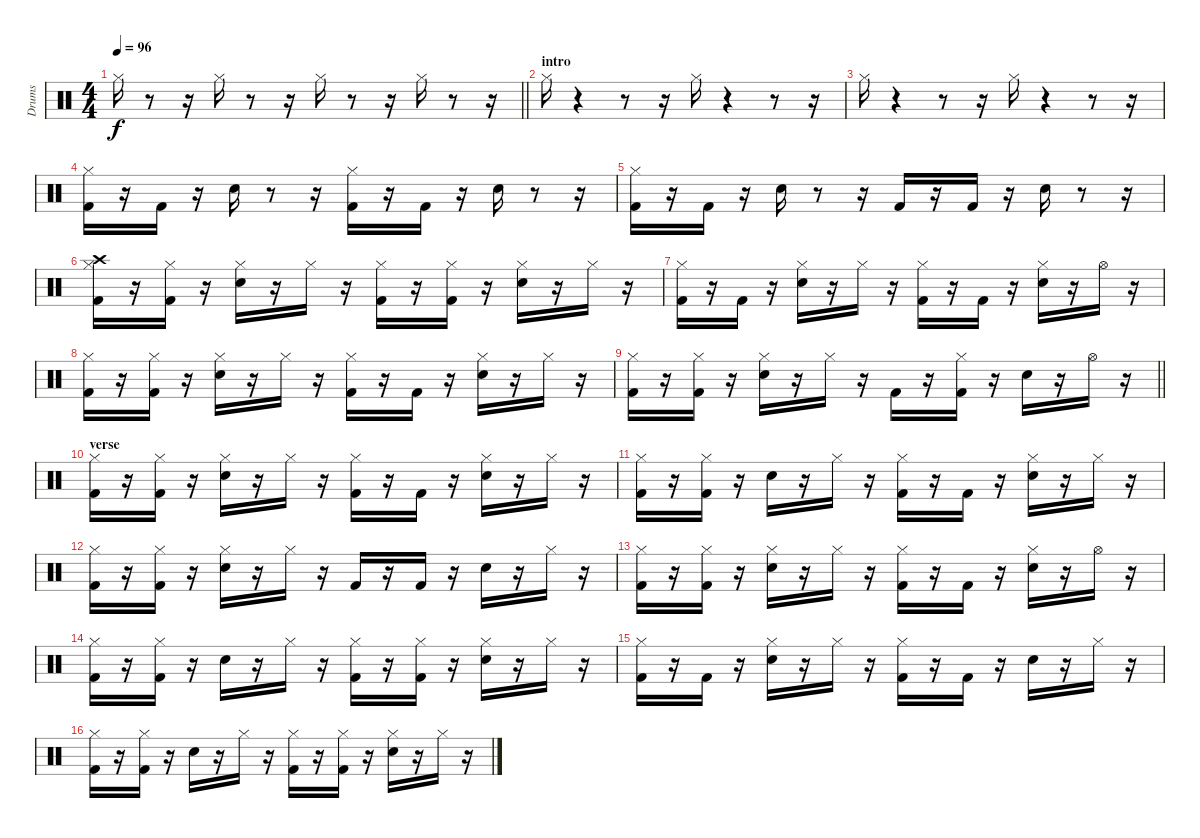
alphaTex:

\track ("Drums" "Drums") {instrument percussion}
\staff {score}
\articulation defaults
\ts (4 4)
\tempo 96
\clef neutral
\barLineRight lightlight
\ks c "Hi-Hat (closed)".16{dy f}
r.8 r.16 "Hi-Hat (closed)".16 r.8 r.16 "Hi-Hat (closed)".16 r.8 r.16 "Hi-Hat (closed)".16 r.8 r.16 |
\section ("" "intro")
"Hi-Hat (closed)".16 r.4 r.8 r.16 "Hi-Hat (closed)".16 r.4 r.8 r.16 |
"Hi-Hat (closed)".16 r.4 r.8 r.16 "Hi-Hat (closed)".16 r.4 r.8 r.16 |
("Kick (hit) 2" "Hi-Hat (closed)").16 r.16 "Kick (hit) 2".16 r.16 "Snare (hit) 2".16 r.8 r.16 ("Kick (hit) 2" "Hi-Hat (closed)").16 r.16 "Kick (hit) 2".16 r.16 "Snare (hit) 2".16 r.8 r.16 |
("Kick (hit) 2" "Hi-Hat (closed)").16 r.16 "Kick (hit) 2".16 r.16 "Snare (hit) 2".16 r.8 r.16 "Kick (hit) 2".16 r.16 "Kick (hit) 2".16 r.16 "Snare (hit) 2".16 r.8 r.16 |
("Kick (hit) 2" "Hi-Hat (closed)" "Crash high (hit)").16 r.16 ("Kick (hit) 2" "Hi-Hat (closed)").16 r.16 ("Snare (hit) 2" "Hi-Hat (closed)").16 r.16 "Hi-Hat (closed)".16 r.16 ("Kick (hit) 2" "Hi-Hat (closed)").16 r.16 ("Kick (hit) 2" "Hi-Hat (closed)").16 r.16 ("Snare (hit) 2" "Hi-Hat (closed)").16 r.16 "Hi-Hat (closed)".16 r.16 |
("Kick (hit) 2" "Hi-Hat (closed)").16 r.16 "Kick (hit) 2".16 r.16 ("Snare (hit) 2" "Hi-Hat (closed)").16 r.16 "Hi-Hat (closed)".16 r.16 ("Kick (hit) 2" "Hi-Hat (closed)").16 r.16 "Kick (hit) 2".16 r.16 ("Snare (hit) 2" "Hi-Hat (closed)").16 r.16 "Hi-Hat (open)".16 r.16 |
("Kick (hit) 2" "Hi-Hat (closed)").16 r.16 ("Kick (hit) 2" "Hi-Hat (closed)").16 r.16 ("Snare (hit) 2" "Hi-Hat (closed)").16 r.16 "Hi-Hat (closed)".16 r.16 ("Kick (hit) 2" "Hi-Hat (closed)").16 r.16 "Kick (hit) 2".16 r.16 ("Snare (hit) 2" "Hi-Hat (closed)").16 r.16 "Hi-Hat (closed)".16 r.16 |
\barLineRight lightlight
("Kick (hit) 2" "Hi-Hat (closed)").16 r.16 ("Kick (hit) 2" "Hi-Hat (closed)").16 r.16 ("Snare (hit) 2" "Hi-Hat (closed)").16 r.16 "Hi-Hat (closed)".16 r.16 "Kick (hit) 2".16 r.16 ("Kick (hit) 2" "Hi-Hat (closed)").16 r.16 "Snare (hit) 2".16 r.16 "Hi-Hat (open)".16 r.16 |
\section ("" "verse")
("Kick (hit) 2" "Hi-Hat (closed)").16 r.16 ("Kick (hit) 2" "Hi-Hat (closed)").16 r.16 ("Snare (hit) 2" "Hi-Hat (closed)").16 r.16 "Hi-Hat (closed)".16 r.16 ("Kick (hit) 2" "Hi-Hat (closed)").16 r.16 "Kick (hit) 2".16 r.16 ("Snare (hit) 2" "Hi-Hat (closed)").16 r.16 "Hi-Hat (closed)".16 r.16 |
("Kick (hit) 2" "Hi-Hat (closed)").16 r.16 ("Kick (hit) 2" "Hi-Hat (closed)").16 r.16 "Snare (hit) 2".16 r.16 "Hi-Hat (closed)".16 r.16 ("Kick (hit) 2" "Hi-Hat (closed)").16 r.16 "Kick (hit) 2".16 r.16 ("Snare (hit) 2" "Hi-Hat (closed)").16 r.16 "Hi-Hat (closed)".16 r.16 |
("Kick (hit) 2" "Hi-Hat (closed)").16 r.16 ("Kick (hit) 2" "Hi-Hat (closed)").16 r.16 ("Snare (hit) 2" "Hi-Hat (closed)").16 r.16 "Hi-Hat (closed)".16 r.16 "Kick (hit) 2".16 r.16 "Kick (hit) 2".16 r.16 "Snare (hit) 2".16 r.16 "Hi-Hat (closed)".16 r.16 |
("Kick (hit) 2" "Hi-Hat (closed)").16 r.16 ("Kick (hit) 2" "Hi-Hat (closed)").16 r.16 ("Snare (hit) 2" "Hi-Hat (closed)").16 r.16 "Hi-Hat (closed)".16 r.16 ("Kick (hit) 2" "Hi-Hat (closed)").16 r.16 "Kick (hit) 2".16 r.16 ("Snare (hit) 2" "Hi-Hat (closed)").16 r.16 "Hi-Hat (open)".16 r.16 |
("Kick (hit) 2" "Hi-Hat (closed)").16 r.16 ("Kick (hit) 2" "Hi-Hat (closed)").16 r.16 "Snare (hit) 2".16 r.16 "Hi-Hat (closed)".16 r.16 ("Kick (hit) 2" "Hi-Hat (closed)").16 r.16 ("Kick (hit) 2" "Hi-Hat (closed)").16 r.16 ("Snare (hit) 2" "Hi-Hat (closed)").16 r.16 "Hi-Hat (closed)".16 r.16 |
("Kick (hit) 2" "Hi-Hat (closed)").16 r.16 "Kick (hit) 2".16 r.16 ("Snare (hit) 2" "Hi-Hat (closed)").16 r.16 "Hi-Hat (closed)".16 r.16 ("Kick (hit) 2" "Hi-Hat (closed)").16 r.16 "Kick (hit) 2".16 r.16 "Snare (hit) 2".16 r.16 "Hi-Hat (closed)".16 r.16 |
("Kick (hit) 2" "Hi-Hat (closed)").16 r.16 ("Kick (hit) 2" "Hi-Hat (closed)").16 r.16 "Snare (hit) 2".16 r.16 "Hi-Hat (closed)".16 r.16 ("Kick (hit) 2" "Hi-Hat (closed)").16 r.16 ("Kick (hit) 2" "Hi-Hat (closed)").16 r.16 ("Snare (hit) 2" "Hi-Hat (closed)").16 r.16 "Hi-Hat (closed)".16 r.16
